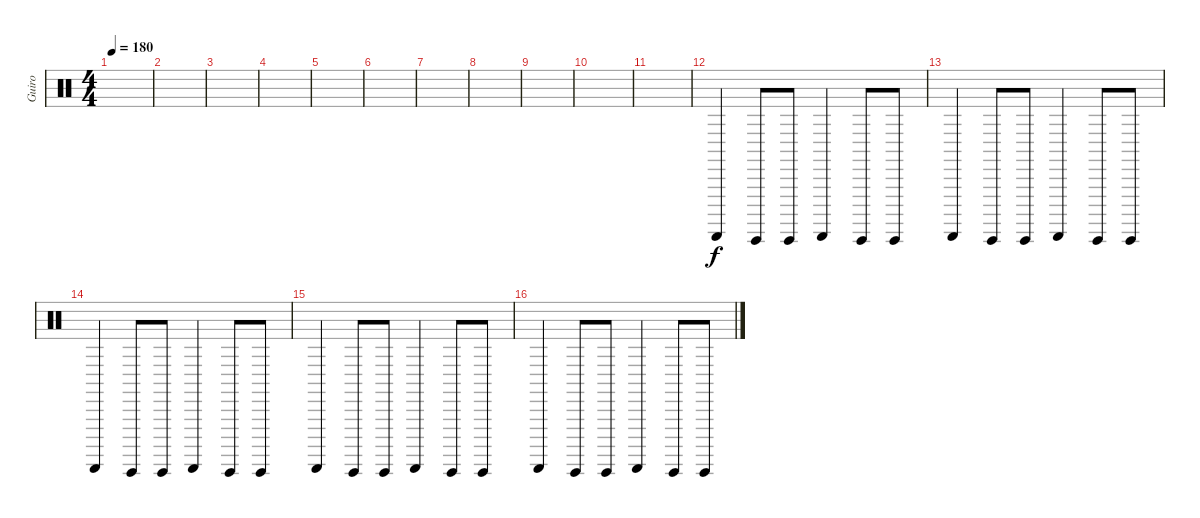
\track ("Guiro" "Guiro") {instrument percussion}
\staff {score}
\articulation defaults
\ts (4 4)
\tempo 180
\clef neutral
\ks c
|
|
|
|
|
|
|
|
|
|
|
"Guiro (scrap-return)".4 "Guiro (hit)".8 "Guiro (hit)".8 "Guiro (scrap-return)".4 "Guiro (hit)".8 "Guiro (hit)".8 |
"Guiro (scrap-return)".4 "Guiro (hit)".8 "Guiro (hit)".8 "Guiro (scrap-return)".4 "Guiro (hit)".8 "Guiro (hit)".8 |
"Guiro (scrap-return)".4 "Guiro (hit)".8 "Guiro (hit)".8 "Guiro (scrap-return)".4 "Guiro (hit)".8 "Guiro (hit)".8 |
"Guiro (scrap-return)".4 "Guiro (hit)".8 "Guiro (hit)".8 "Guiro (scrap-return)".4 "Guiro (hit)".8 "Guiro (hit)".8 |
"Guiro (scrap-return)".4 "Guiro (hit)".8 "Guiro (hit)".8 "Guiro (scrap-return)".4 "Guiro (hit)".8 "Guiro (hit)".8
